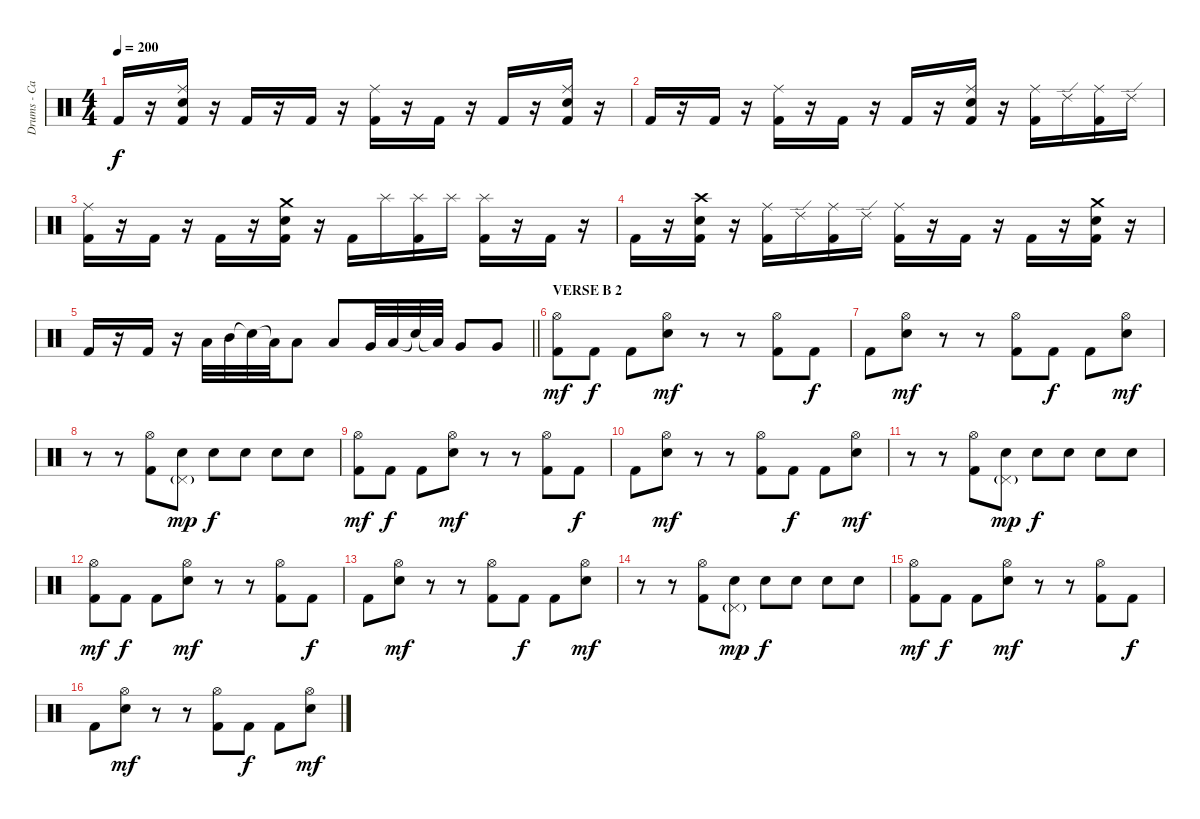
\track ("Drums - Carlos Cruz" "Drums - Ca") {instrument percussion}
\staff {score}
\articulation defaults
\ts (4 4)
\tempo 200
\clef neutral
\ks c "Kick (hit) 2".16{dy f}
r.16 ("Ride (middle)" "Snare (hit) 2" "Kick (hit) 2").16 r.16 "Kick (hit) 2".16 r.16 "Kick (hit) 2".16 r.16 ("Ride (middle)" "Kick (hit) 2").16 r.16 "Kick (hit) 2".16 r.16 "Kick (hit) 2".16 r.16 ("Ride (middle)" "Snare (hit) 2" "Kick (hit) 2").16 r.16 |
"Kick (hit) 2".16 r.16 "Kick (hit) 2".16 r.16 ("Ride (middle)" "Kick (hit) 2").16 r.16 "Kick (hit) 2".16 r.16 "Kick (hit) 2".16 r.16 ("Ride (middle)" "Snare (hit) 2" "Kick (hit) 2").16 r.16 ("Ride (middle)" "Kick (hit) 2").16 "Ride (edge) 2".16 ("Ride (middle)" "Kick (hit) 2").16 "Ride (edge) 2".16 |
("Ride (middle)" "Kick (hit) 2").16 r.16 "Kick (hit) 2".16 r.16 "Kick (hit) 2".16 r.16 ("Crash medium (hit)" "Snare (hit) 2" "Kick (hit) 2").16 r.16 "Kick (hit) 2".16 "Splash (hit)".16 ("Splash (hit)" "Kick (hit) 2").16 "Splash (hit)".16 ("Splash (hit)" "Kick (hit) 2").16 r.16 "Kick (hit) 2".16 r.16 |
"Kick (hit) 2".16 r.16 ("Crash high (hit)" "Snare (hit) 2" "Kick (hit) 2").16 r.16 ("Ride (middle)" "Kick (hit) 2").16 "Ride (edge) 2".16 ("Ride (middle)" "Kick (hit) 2").16 "Ride (edge) 2".16 ("Ride (middle)" "Kick (hit) 2").16 r.16 "Kick (hit) 2".16 r.16 "Kick (hit) 2".16 r.16 ("Crash medium (hit)" "Snare (hit) 2" "Kick (hit) 2").16 r.16 |
\barLineRight lightlight "Kick (hit) 2".16
r.16 "Kick (hit) 2".16 r.16 "Low Tom (hit)".32 "Mid Tom (hit)".32 "Snare (hit)"{t}.32 "Low Tom (hit)"{t}.32 "Low Tom (hit)".8 "Low Tom (hit)".8 "Very Low Tom (hit)".32 "Low Tom (hit)".32 "Snare (hit)"{t}.32 "Low Tom (hit)"{t}.32 "Very Low Tom (hit)".8 "Very Low Tom (hit)".8 |
\section ("" "VERSE B 2")
("Hi-Hat (open)" "Kick (hit) 2").8{dy mf} "Kick (hit) 2".8{dy f} "Kick (hit) 2".8 ("Hi-Hat (open)" "Snare (hit) 2").8{dy mf} r.8 r.8 ("Hi-Hat (open)" "Kick (hit) 2").8 "Kick (hit) 2".8{dy f} |
"Kick (hit) 2".8 ("Hi-Hat (open)" "Snare (hit) 2").8{dy mf} r.8 r.8 ("Hi-Hat (open)" "Kick (hit) 2").8 "Kick (hit) 2".8{dy f} "Kick (hit) 2".8 ("Hi-Hat (open)" "Snare (hit) 2").8{dy mf} |
r.8 r.8 ("Hi-Hat (open)" "Kick (hit) 2").8 ("Pedal Hi-Hat (hit)"{g} "Snare (hit) 2").8{dy mp} "Snare (hit) 2".8{dy f} "Snare (hit) 2".8 "Snare (hit) 2".8 "Snare (hit) 2".8 |
("Hi-Hat (open)" "Kick (hit) 2").8{dy mf} "Kick (hit) 2".8{dy f} "Kick (hit) 2".8 ("Hi-Hat (open)" "Snare (hit) 2").8{dy mf} r.8 r.8 ("Hi-Hat (open)" "Kick (hit) 2").8 "Kick (hit) 2".8{dy f} |
"Kick (hit) 2".8 ("Hi-Hat (open)" "Snare (hit) 2").8{dy mf} r.8 r.8 ("Hi-Hat (open)" "Kick (hit) 2").8 "Kick (hit) 2".8{dy f} "Kick (hit) 2".8 ("Hi-Hat (open)" "Snare (hit) 2").8{dy mf} |
r.8 r.8 ("Hi-Hat (open)" "Kick (hit) 2").8 ("Pedal Hi-Hat (hit)"{g} "Snare (hit) 2").8{dy mp} "Snare (hit) 2".8{dy f} "Snare (hit) 2".8 "Snare (hit) 2".8 "Snare (hit) 2".8 |
("Hi-Hat (open)" "Kick (hit) 2").8{dy mf} "Kick (hit) 2".8{dy f} "Kick (hit) 2".8 ("Hi-Hat (open)" "Snare (hit) 2").8{dy mf} r.8 r.8 ("Hi-Hat (open)" "Kick (hit) 2").8 "Kick (hit) 2".8{dy f} |
"Kick (hit) 2".8 ("Hi-Hat (open)" "Snare (hit) 2").8{dy mf} r.8 r.8 ("Hi-Hat (open)" "Kick (hit) 2").8 "Kick (hit) 2".8{dy f} "Kick (hit) 2".8 ("Hi-Hat (open)" "Snare (hit) 2").8{dy mf} |
r.8 r.8 ("Hi-Hat (open)" "Kick (hit) 2").8 ("Pedal Hi-Hat (hit)"{g} "Snare (hit) 2").8{dy mp} "Snare (hit) 2".8{dy f} "Snare (hit) 2".8 "Snare (hit) 2".8 "Snare (hit) 2".8 |
("Hi-Hat (open)" "Kick (hit) 2").8{dy mf} "Kick (hit) 2".8{dy f} "Kick (hit) 2".8 ("Hi-Hat (open)" "Snare (hit) 2").8{dy mf} r.8 r.8 ("Hi-Hat (open)" "Kick (hit) 2").8 "Kick (hit) 2".8{dy f} |
"Kick (hit) 2".8 ("Hi-Hat (open)" "Snare (hit) 2").8{dy mf} r.8 r.8 ("Hi-Hat (open)" "Kick (hit) 2").8 "Kick (hit) 2".8{dy f} "Kick (hit) 2".8 ("Hi-Hat (open)" "Snare (hit) 2").8{dy mf}
